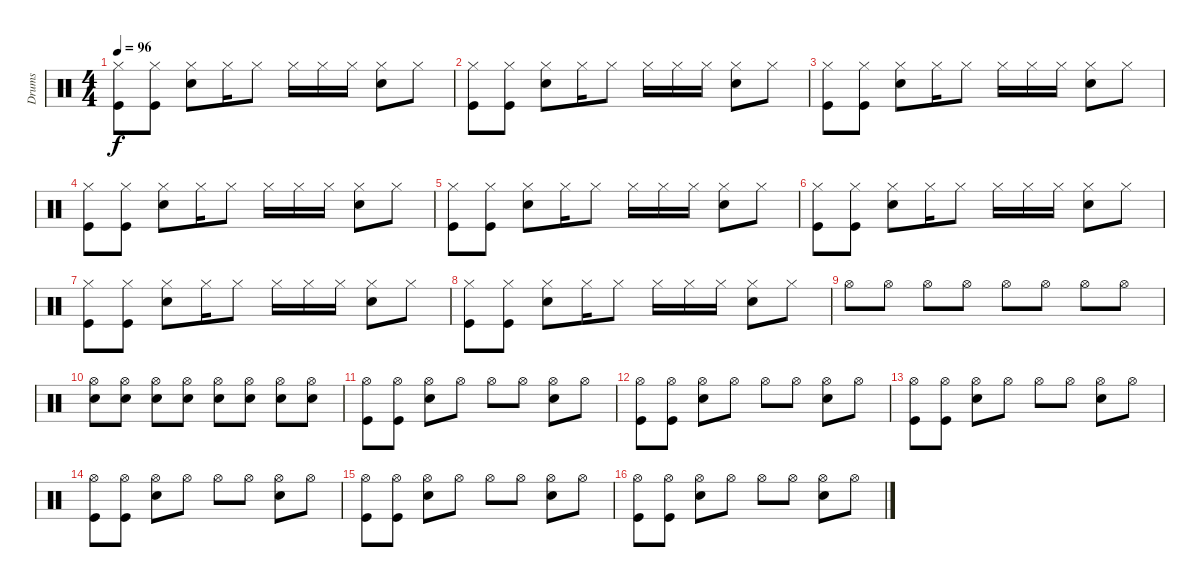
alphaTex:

\track ("Drums" "Drums") {instrument percussion}
\staff {score}
\articulation defaults
\ts (4 4)
\tempo 96
\clef neutral
\ks c
("Kick (hit)" "Hi-Hat (closed)").8{dy f} ("Kick (hit)" "Hi-Hat (closed)").8 ("Electric Snare (hit)" "Hi-Hat (closed)").8 "Hi-Hat (closed)".16 "Hi-Hat (closed)".8 "Hi-Hat (closed)".16 "Hi-Hat (closed)".16 "Hi-Hat (closed)".16 ("Electric Snare (hit)" "Hi-Hat (closed)").8 "Hi-Hat (closed)".8 |
("Kick (hit)" "Hi-Hat (closed)").8 ("Kick (hit)" "Hi-Hat (closed)").8 ("Electric Snare (hit)" "Hi-Hat (closed)").8 "Hi-Hat (closed)".16 "Hi-Hat (closed)".8 "Hi-Hat (closed)".16 "Hi-Hat (closed)".16 "Hi-Hat (closed)".16 ("Electric Snare (hit)" "Hi-Hat (closed)").8 "Hi-Hat (closed)".8 |
("Kick (hit)" "Hi-Hat (closed)").8 ("Kick (hit)" "Hi-Hat (closed)").8 ("Electric Snare (hit)" "Hi-Hat (closed)").8 "Hi-Hat (closed)".16 "Hi-Hat (closed)".8 "Hi-Hat (closed)".16 "Hi-Hat (closed)".16 "Hi-Hat (closed)".16 ("Electric Snare (hit)" "Hi-Hat (closed)").8 "Hi-Hat (closed)".8 |
("Kick (hit)" "Hi-Hat (closed)").8 ("Kick (hit)" "Hi-Hat (closed)").8 ("Electric Snare (hit)" "Hi-Hat (closed)").8 "Hi-Hat (closed)".16 "Hi-Hat (closed)".8 "Hi-Hat (closed)".16 "Hi-Hat (closed)".16 "Hi-Hat (closed)".16 ("Electric Snare (hit)" "Hi-Hat (closed)").8 "Hi-Hat (closed)".8 |
("Kick (hit)" "Hi-Hat (closed)").8 ("Kick (hit)" "Hi-Hat (closed)").8 ("Electric Snare (hit)" "Hi-Hat (closed)").8 "Hi-Hat (closed)".16 "Hi-Hat (closed)".8 "Hi-Hat (closed)".16 "Hi-Hat (closed)".16 "Hi-Hat (closed)".16 ("Electric Snare (hit)" "Hi-Hat (closed)").8 "Hi-Hat (closed)".8 |
("Kick (hit)" "Hi-Hat (closed)").8 ("Kick (hit)" "Hi-Hat (closed)").8 ("Electric Snare (hit)" "Hi-Hat (closed)").8 "Hi-Hat (closed)".16 "Hi-Hat (closed)".8 "Hi-Hat (closed)".16 "Hi-Hat (closed)".16 "Hi-Hat (closed)".16 ("Electric Snare (hit)" "Hi-Hat (closed)").8 "Hi-Hat (closed)".8 |
("Kick (hit)" "Hi-Hat (closed)").8 ("Kick (hit)" "Hi-Hat (closed)").8 ("Electric Snare (hit)" "Hi-Hat (closed)").8 "Hi-Hat (closed)".16 "Hi-Hat (closed)".8 "Hi-Hat (closed)".16 "Hi-Hat (closed)".16 "Hi-Hat (closed)".16 ("Electric Snare (hit)" "Hi-Hat (closed)").8 "Hi-Hat (closed)".8 |
("Kick (hit)" "Hi-Hat (closed)").8 ("Kick (hit)" "Hi-Hat (closed)").8 ("Electric Snare (hit)" "Hi-Hat (closed)").8 "Hi-Hat (closed)".16 "Hi-Hat (closed)".8 "Hi-Hat (closed)".16 "Hi-Hat (closed)".16 "Hi-Hat (closed)".16 ("Electric Snare (hit)" "Hi-Hat (closed)").8 "Hi-Hat (closed)".8 |
"Hi-Hat (open)".8 "Hi-Hat (open)".8 "Hi-Hat (open)".8 "Hi-Hat (open)".8 "Hi-Hat (open)".8 "Hi-Hat (open)".8 "Hi-Hat (open)".8 "Hi-Hat (open)".8 |
("Electric Snare (hit)" "Hi-Hat (open)").8 ("Electric Snare (hit)" "Hi-Hat (open)").8 ("Electric Snare (hit)" "Hi-Hat (open)").8 ("Electric Snare (hit)" "Hi-Hat (open)").8 ("Electric Snare (hit)" "Hi-Hat (open)").8 ("Electric Snare (hit)" "Hi-Hat (open)").8 ("Electric Snare (hit)" "Hi-Hat (open)").8 ("Electric Snare (hit)" "Hi-Hat (open)").8 |
("Hi-Hat (open)" "Kick (hit)").8 ("Hi-Hat (open)" "Kick (hit)").8 ("Hi-Hat (open)" "Electric Snare (hit)").8 "Hi-Hat (open)".8 "Hi-Hat (open)".8 "Hi-Hat (open)".8 ("Hi-Hat (open)" "Electric Snare (hit)").8 "Hi-Hat (open)".8 |
("Hi-Hat (open)" "Kick (hit)").8 ("Hi-Hat (open)" "Kick (hit)").8 ("Hi-Hat (open)" "Electric Snare (hit)").8 "Hi-Hat (open)".8 "Hi-Hat (open)".8 "Hi-Hat (open)".8 ("Hi-Hat (open)" "Electric Snare (hit)").8 "Hi-Hat (open)".8 |
("Hi-Hat (open)" "Kick (hit)").8 ("Hi-Hat (open)" "Kick (hit)").8 ("Hi-Hat (open)" "Electric Snare (hit)").8 "Hi-Hat (open)".8 "Hi-Hat (open)".8 "Hi-Hat (open)".8 ("Hi-Hat (open)" "Electric Snare (hit)").8 "Hi-Hat (open)".8 |
("Hi-Hat (open)" "Kick (hit)").8 ("Hi-Hat (open)" "Kick (hit)").8 ("Hi-Hat (open)" "Electric Snare (hit)").8 "Hi-Hat (open)".8 "Hi-Hat (open)".8 "Hi-Hat (open)".8 ("Hi-Hat (open)" "Electric Snare (hit)").8 "Hi-Hat (open)".8 |
("Hi-Hat (open)" "Kick (hit)").8 ("Hi-Hat (open)" "Kick (hit)").8 ("Hi-Hat (open)" "Electric Snare (hit)").8 "Hi-Hat (open)".8 "Hi-Hat (open)".8 "Hi-Hat (open)".8 ("Hi-Hat (open)" "Electric Snare (hit)").8 "Hi-Hat (open)".8 |
("Hi-Hat (open)" "Kick (hit)").8 ("Hi-Hat (open)" "Kick (hit)").8 ("Hi-Hat (open)" "Electric Snare (hit)").8 "Hi-Hat (open)".8 "Hi-Hat (open)".8 "Hi-Hat (open)".8 ("Hi-Hat (open)" "Electric Snare (hit)").8 "Hi-Hat (open)".8
